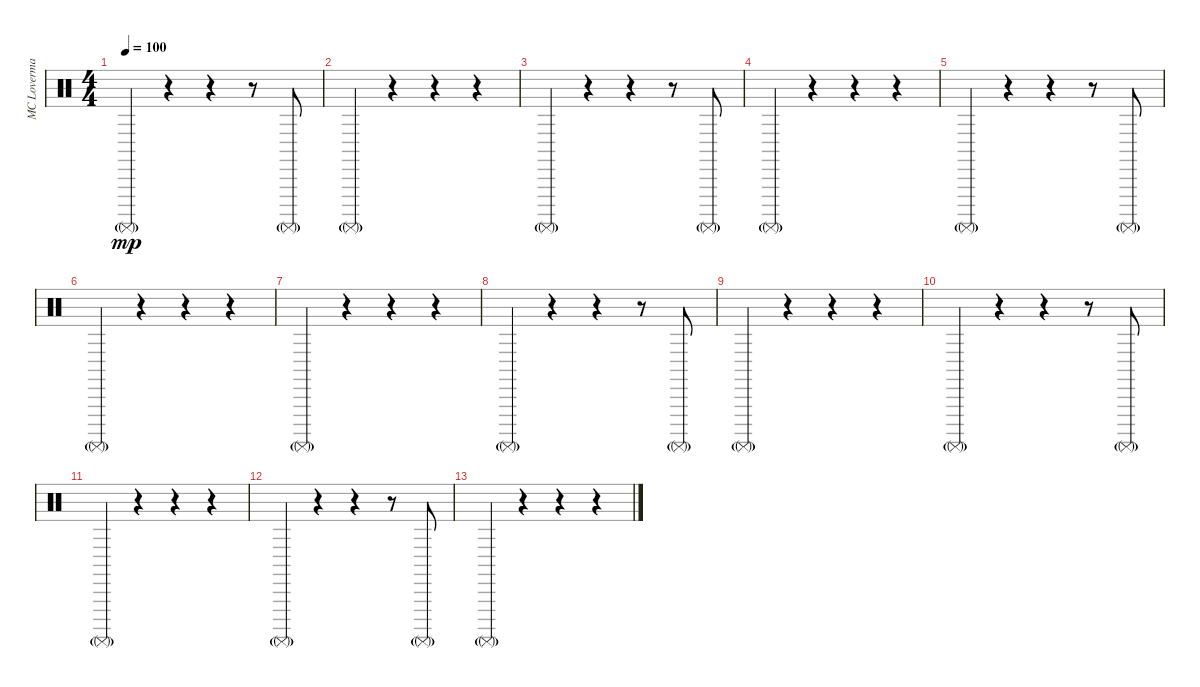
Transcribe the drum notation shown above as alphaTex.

\track ("MC Loverman" "MC Loverma") {instrument percussion}
\staff {score}
\articulation defaults
\ts (4 4)
\tempo 100
\clef neutral
\ks c "Surdo (mute)"{g}.4{dy mp}
r.4 r.4 r.8 "Surdo (mute)"{g}.8 |
"Surdo (mute)"{g}.4 r.4 r.4 r.4 |
"Surdo (mute)"{g}.4 r.4 r.4 r.8 "Surdo (mute)"{g}.8 |
"Surdo (mute)"{g}.4 r.4 r.4 r.4 |
"Surdo (mute)"{g}.4 r.4 r.4 r.8 "Surdo (mute)"{g}.8 |
"Surdo (mute)"{g}.4 r.4 r.4 r.4 |
"Surdo (mute)"{g}.4 r.4 r.4 r.4 |
"Surdo (mute)"{g}.4 r.4 r.4 r.8 "Surdo (mute)"{g}.8 |
"Surdo (mute)"{g}.4 r.4 r.4 r.4 |
"Surdo (mute)"{g}.4 r.4 r.4 r.8 "Surdo (mute)"{g}.8 |
"Surdo (mute)"{g}.4 r.4 r.4 r.4 |
"Surdo (mute)"{g}.4 r.4 r.4 r.8 "Surdo (mute)"{g}.8 |
"Surdo (mute)"{g}.4 r.4 r.4 r.4
